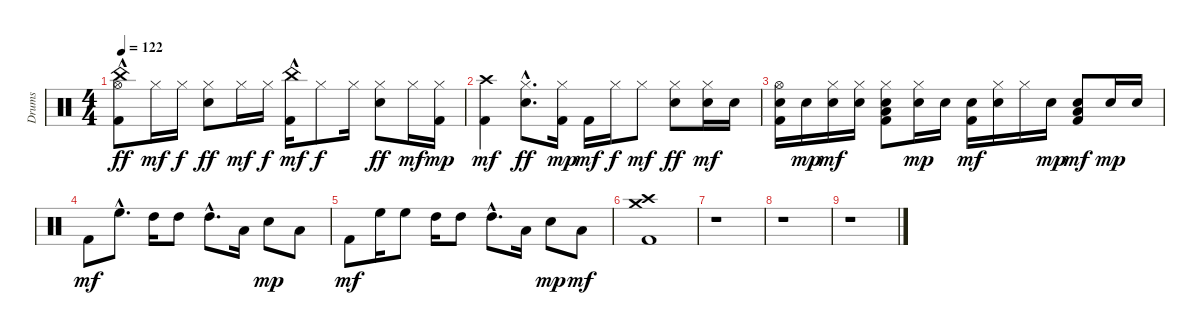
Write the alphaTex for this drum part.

\track ("Drums" "Drums") {instrument percussion}
\staff {score}
\articulation defaults
\ts (4 4)
\tempo 122
\clef neutral
\ks c
("China (hit)"{hac} "Kick (hit) 2" "Hi-Hat (open)").8{dy ff} "Hi-Hat (closed)".16{dy mf} "Hi-Hat (closed)".16{dy f} ("Snare (hit) 2" "Hi-Hat (closed)").8{dy ff} "Hi-Hat (closed)".16{dy mf} "Hi-Hat (closed)".16{dy f} ("China (hit)"{hac} "Kick (hit) 2").16{dy mf} "Hi-Hat (closed)".8{dy f} "Hi-Hat (closed)".16 ("Snare (hit) 2" "Hi-Hat (closed)").8{dy ff} "Hi-Hat (closed)".16{dy mf} ("Hi-Hat (closed)" "Kick (hit) 2").16{dy mp} |
("Kick (hit) 2" "Crash high (hit)").4{dy mf} ("Snare (hit) 2"{hac} "Hi-Hat (closed)"{hac}).8{d dy ff} ("Hi-Hat (closed)" "Kick (hit) 2").16{dy mp} "Kick (hit) 2".16{dy mf} "Hi-Hat (closed)".16{dy f} "Hi-Hat (closed)".8{dy mf} ("Snare (hit) 2" "Hi-Hat (closed)").8{dy ff} ("Hi-Hat (closed)" "Snare (hit) 2").16{dy mf} "Snare (hit) 2".16 |
("Snare (hit) 2" "Kick (hit) 2" "Hi-Hat (open)").16 "Snare (hit) 2".16{dy mp} ("Hi-Hat (closed)" "Snare (hit) 2").16{dy mf} ("Snare (hit) 2" "Hi-Hat (closed)").16 ("Snare (hit) 2" "Low Floor Tom (hit)" "Hi-Hat (closed)" "Kick (hit) 2").8 ("Hi-Hat (closed)" "Snare (hit) 2").16{dy mp} "Snare (hit) 2".16 ("Snare (hit) 2" "Kick (hit) 2").16{dy mf} ("Snare (hit) 2" "Hi-Hat (closed)").16 "Hi-Hat (closed)".16 "Snare (hit) 2".16{dy mp} ("Snare (hit) 2" "Low Floor Tom (hit)" "Kick (hit) 2").8{dy mf} "Snare (hit) 2".16{dy mp} "Snare (hit) 2".16 |
"Kick (hit) 2".8{dy mf} "High Floor Tom (hit)"{hac}.8{d} "High Tom (hit)".16 "High Tom (hit)".8 "High Tom (hit)"{hac}.8{d} "Low Tom (hit)".16 "Snare (hit) 2".8{dy mp} "Low Floor Tom (hit)".8 |
"Kick (hit) 2".8{dy mf} "High Floor Tom (hit)".16 "High Floor Tom (hit)".8 "High Tom (hit)".16 "High Tom (hit)".8 "High Tom (hit)"{hac}.8{d} "Low Tom (hit)".16 "Snare (hit) 2".8{dy mp} "Low Floor Tom (hit)".8{dy mf volume 14} |
("Kick (hit) 2" "Crash high (hit)" "Crash medium (hit)").1 |
r.1 |
r.1 |
r.1
